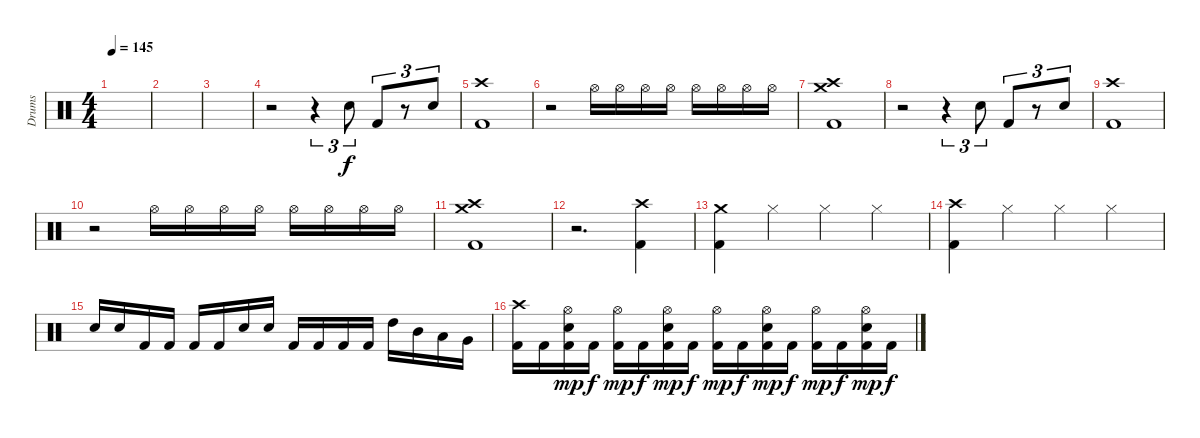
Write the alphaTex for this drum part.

\track ("Drums" "Drums") {instrument percussion}
\staff {score}
\articulation defaults
\ts (4 4)
\tempo 145
\clef neutral
\ks c
|
|
|
r.2 r.4{tu (3 2)} "Snare (hit) 2".8{tu (3 2)} "Kick (hit) 2".8{tu (3 2)} r.8{tu (3 2)} "Snare (hit) 2".8{tu (3 2)} |
("Crash high (hit)" "Kick (hit) 2").1 |
r.2{volume 0} "Hi-Hat (open)".16{volume 12} "Hi-Hat (open)".16 "Hi-Hat (open)".16 "Hi-Hat (open)".16 "Hi-Hat (open)".16 "Hi-Hat (open)".16 "Hi-Hat (open)".16 "Hi-Hat (open)".16 |
("Crash high (hit)" "Crash medium (hit)" "Kick (hit) 2").1{volume 0} |
r.2 r.4{tu (3 2)} "Snare (hit) 2".8{tu (3 2) volume 13} "Kick (hit) 2".8{tu (3 2)} r.8{tu (3 2)} "Snare (hit) 2".8{tu (3 2)} |
("Crash high (hit)" "Kick (hit) 2").1 |
r.2{volume 0} "Hi-Hat (open)".16{volume 13} "Hi-Hat (open)".16 "Hi-Hat (open)".16 "Hi-Hat (open)".16 "Hi-Hat (open)".16 "Hi-Hat (open)".16 "Hi-Hat (open)".16 "Hi-Hat (open)".16 |
("Crash high (hit)" "Crash medium (hit)" "Kick (hit) 2").1{volume 0} |
r.2{d} ("Crash high (hit)" "Kick (hit) 2").4{volume 13} |
("Crash medium (hit)" "Kick (hit) 2").4 "Hi-Hat (closed)".4 "Hi-Hat (closed)".4 "Hi-Hat (closed)".4 |
("Crash high (hit)" "Kick (hit) 2").4 "Hi-Hat (closed)".4 "Hi-Hat (closed)".4 "Hi-Hat (closed)".4 |
"Snare (hit) 2".16 "Snare (hit) 2".16 "Kick (hit) 2".16 "Kick (hit) 2".16 "Kick (hit) 2".16 "Kick (hit) 2".16 "Snare (hit) 2".16 "Snare (hit) 2".16 "Kick (hit) 2".16 "Kick (hit) 2".16 "Kick (hit) 2".16 "Kick (hit) 2".16 "High Tom (hit)".16 "Mid Tom (hit)".16 "Low Tom (hit)".16 "Very Low Tom (hit)".16 |
("Crash high (hit)" "Kick (hit) 2").16 "Kick (hit) 2".16 ("Hi-Hat (open)" "Snare (hit) 2" "Kick (hit) 2").16{dy mp} "Kick (hit) 2".16{dy f} ("Hi-Hat (open)" "Kick (hit) 2").16{dy mp} "Kick (hit) 2".16{dy f} ("Hi-Hat (open)" "Snare (hit) 2" "Kick (hit) 2").16{dy mp} "Kick (hit) 2".16{dy f} ("Hi-Hat (open)" "Kick (hit) 2").16{dy mp} "Kick (hit) 2".16{dy f} ("Hi-Hat (open)" "Snare (hit) 2" "Kick (hit) 2").16{dy mp} "Kick (hit) 2".16{dy f} ("Hi-Hat (open)" "Kick (hit) 2").16{dy mp} "Kick (hit) 2".16{dy f} ("Hi-Hat (open)" "Snare (hit) 2" "Kick (hit) 2").16{dy mp} "Kick (hit) 2".16{dy f}
